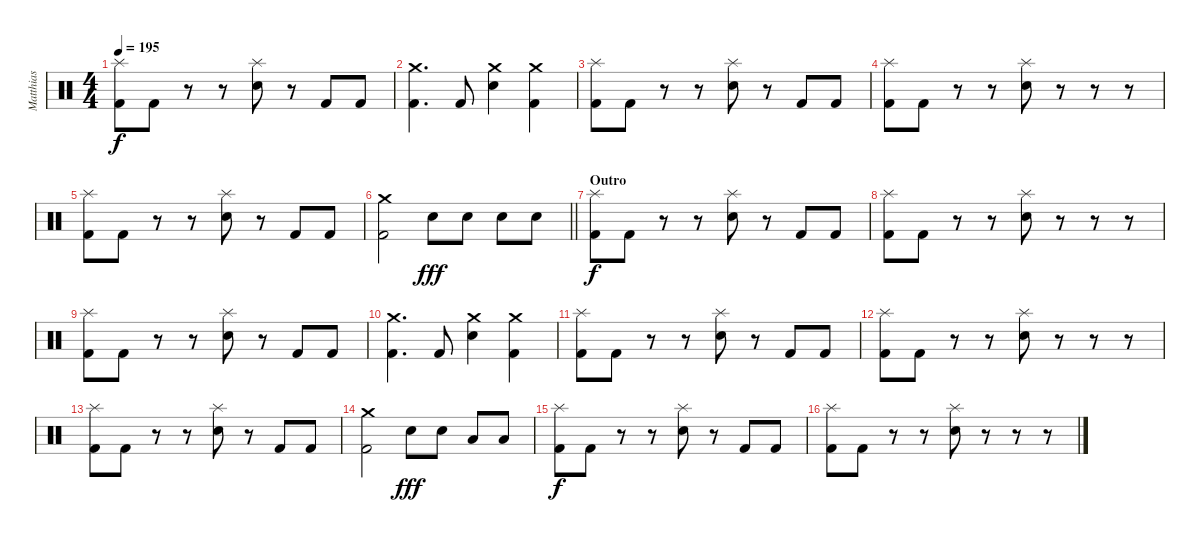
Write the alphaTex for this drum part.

\track ("Matthias" "Matthias") {instrument percussion}
\staff {score}
\articulation defaults
\ts (4 4)
\tempo 195
\clef neutral
\ks c
("Splash (hit)" "Kick (hit) 2").8{dy f} "Kick (hit) 2".8 r.8 r.8 ("Splash (hit)" "Electric Snare (hit)").8 r.8 "Kick (hit) 2".8 "Kick (hit) 2".8 |
("Crash medium (hit)" "Kick (hit) 2").4{d} "Kick (hit) 2".8 ("Crash medium (hit)" "Electric Snare (hit)").4 ("Crash medium (hit)" "Kick (hit) 2").4 |
("Splash (hit)" "Kick (hit) 2").8 "Kick (hit) 2".8 r.8 r.8 ("Splash (hit)" "Electric Snare (hit)").8 r.8 "Kick (hit) 2".8 "Kick (hit) 2".8 |
("Splash (hit)" "Kick (hit) 2").8 "Kick (hit) 2".8 r.8 r.8 ("Splash (hit)" "Electric Snare (hit)").8 r.8 r.8 r.8 |
("Splash (hit)" "Kick (hit) 2").8 "Kick (hit) 2".8 r.8 r.8 ("Splash (hit)" "Electric Snare (hit)").8 r.8 "Kick (hit) 2".8 "Kick (hit) 2".8 |
\barLineRight lightlight
("Crash medium (hit)" "Kick (hit) 2").2 "Electric Snare (hit)".8{dy fff} "Electric Snare (hit)".8 "Electric Snare (hit)".8 "Electric Snare (hit)".8 |
\section ("" "Outro")
("Splash (hit)" "Kick (hit) 2").8{dy f} "Kick (hit) 2".8 r.8 r.8 ("Splash (hit)" "Electric Snare (hit)").8 r.8 "Kick (hit) 2".8 "Kick (hit) 2".8 |
("Splash (hit)" "Kick (hit) 2").8 "Kick (hit) 2".8 r.8 r.8 ("Splash (hit)" "Electric Snare (hit)").8 r.8 r.8 r.8 |
("Splash (hit)" "Kick (hit) 2").8 "Kick (hit) 2".8 r.8 r.8 ("Splash (hit)" "Electric Snare (hit)").8 r.8 "Kick (hit) 2".8 "Kick (hit) 2".8 |
("Crash medium (hit)" "Kick (hit) 2").4{d} "Kick (hit) 2".8 ("Crash medium (hit)" "Electric Snare (hit)").4 ("Crash medium (hit)" "Kick (hit) 2").4 |
("Splash (hit)" "Kick (hit) 2").8 "Kick (hit) 2".8 r.8 r.8 ("Splash (hit)" "Electric Snare (hit)").8 r.8 "Kick (hit) 2".8 "Kick (hit) 2".8 |
("Splash (hit)" "Kick (hit) 2").8 "Kick (hit) 2".8 r.8 r.8 ("Splash (hit)" "Electric Snare (hit)").8 r.8 r.8 r.8 |
("Splash (hit)" "Kick (hit) 2").8 "Kick (hit) 2".8 r.8 r.8 ("Splash (hit)" "Electric Snare (hit)").8 r.8 "Kick (hit) 2".8 "Kick (hit) 2".8 |
("Crash medium (hit)" "Kick (hit) 2").2 "Electric Snare (hit)".8{dy fff} "Electric Snare (hit)".8 "Low Tom (hit)".8 "Low Tom (hit)".8 |
("Splash (hit)" "Kick (hit) 2").8{dy f} "Kick (hit) 2".8 r.8 r.8 ("Splash (hit)" "Electric Snare (hit)").8 r.8 "Kick (hit) 2".8 "Kick (hit) 2".8 |
("Splash (hit)" "Kick (hit) 2").8 "Kick (hit) 2".8 r.8 r.8 ("Splash (hit)" "Electric Snare (hit)").8 r.8 r.8 r.8
